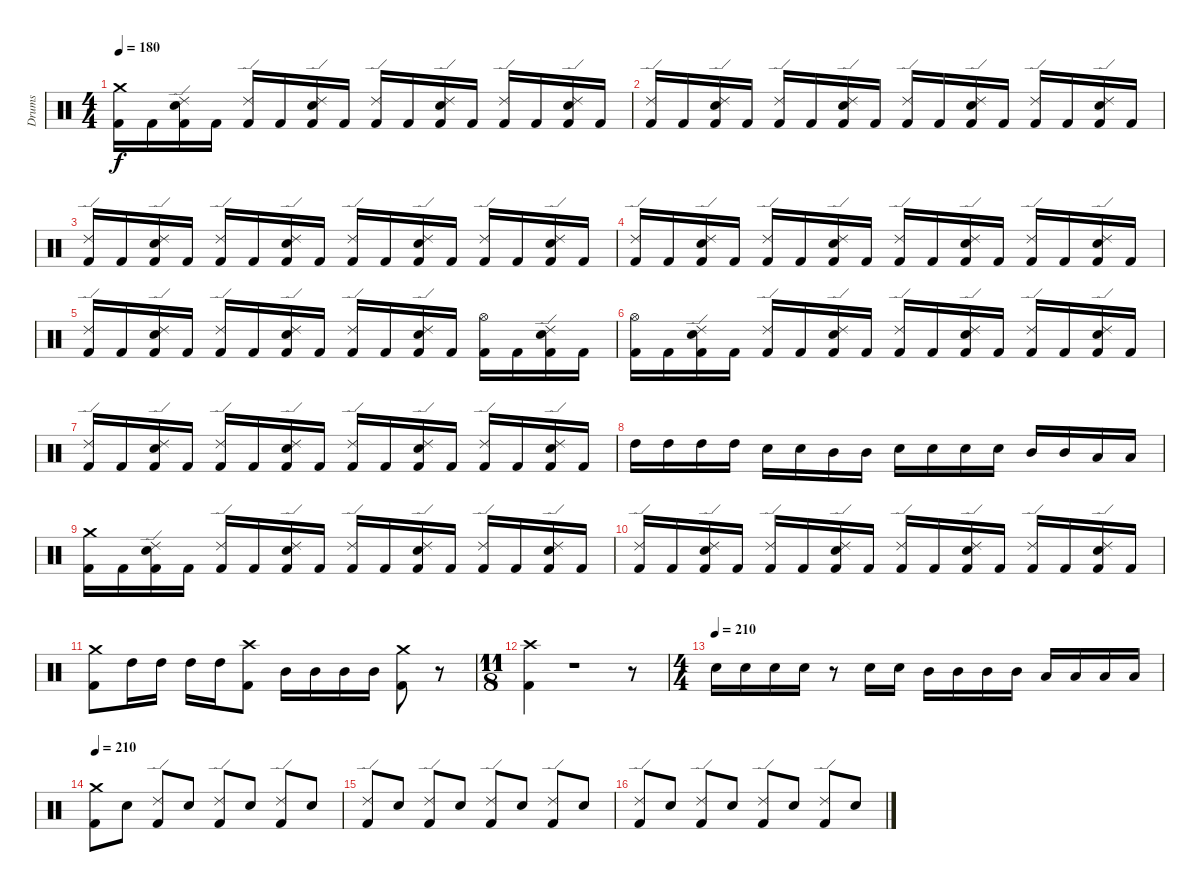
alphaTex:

\track ("Drums" "Drums") {instrument percussion}
\staff {score}
\articulation defaults
\ts (4 4)
\tempo 180
\clef neutral
\ks c
("Crash medium (hit)" "Kick (hit) 2").16{dy f} "Kick (hit) 2".16 ("Ride (edge) 2" "Electric Snare (hit)" "Kick (hit) 2").16 "Kick (hit) 2".16 ("Ride (edge) 2" "Kick (hit) 2").16 "Kick (hit) 2".16 ("Ride (edge) 2" "Electric Snare (hit)" "Kick (hit) 2").16 "Kick (hit) 2".16 ("Ride (edge) 2" "Kick (hit) 2").16 "Kick (hit) 2".16 ("Ride (edge) 2" "Electric Snare (hit)" "Kick (hit) 2").16 "Kick (hit) 2".16 ("Ride (edge) 2" "Kick (hit) 2").16 "Kick (hit) 2".16 ("Ride (edge) 2" "Electric Snare (hit)" "Kick (hit) 2").16 "Kick (hit) 2".16 |
("Ride (edge) 2" "Kick (hit) 2").16 "Kick (hit) 2".16 ("Ride (edge) 2" "Electric Snare (hit)" "Kick (hit) 2").16 "Kick (hit) 2".16 ("Ride (edge) 2" "Kick (hit) 2").16 "Kick (hit) 2".16 ("Ride (edge) 2" "Electric Snare (hit)" "Kick (hit) 2").16 "Kick (hit) 2".16 ("Ride (edge) 2" "Kick (hit) 2").16 "Kick (hit) 2".16 ("Ride (edge) 2" "Electric Snare (hit)" "Kick (hit) 2").16 "Kick (hit) 2".16 ("Ride (edge) 2" "Kick (hit) 2").16 "Kick (hit) 2".16 ("Ride (edge) 2" "Electric Snare (hit)" "Kick (hit) 2").16 "Kick (hit) 2".16 |
("Ride (edge) 2" "Kick (hit) 2").16 "Kick (hit) 2".16 ("Ride (edge) 2" "Electric Snare (hit)" "Kick (hit) 2").16 "Kick (hit) 2".16 ("Ride (edge) 2" "Kick (hit) 2").16 "Kick (hit) 2".16 ("Ride (edge) 2" "Electric Snare (hit)" "Kick (hit) 2").16 "Kick (hit) 2".16 ("Ride (edge) 2" "Kick (hit) 2").16 "Kick (hit) 2".16 ("Ride (edge) 2" "Electric Snare (hit)" "Kick (hit) 2").16 "Kick (hit) 2".16 ("Ride (edge) 2" "Kick (hit) 2").16 "Kick (hit) 2".16 ("Ride (edge) 2" "Electric Snare (hit)" "Kick (hit) 2").16 "Kick (hit) 2".16 |
("Ride (edge) 2" "Kick (hit) 2").16 "Kick (hit) 2".16 ("Ride (edge) 2" "Electric Snare (hit)" "Kick (hit) 2").16 "Kick (hit) 2".16 ("Ride (edge) 2" "Kick (hit) 2").16 "Kick (hit) 2".16 ("Ride (edge) 2" "Electric Snare (hit)" "Kick (hit) 2").16 "Kick (hit) 2".16 ("Ride (edge) 2" "Kick (hit) 2").16 "Kick (hit) 2".16 ("Ride (edge) 2" "Electric Snare (hit)" "Kick (hit) 2").16 "Kick (hit) 2".16 ("Ride (edge) 2" "Kick (hit) 2").16 "Kick (hit) 2".16 ("Ride (edge) 2" "Electric Snare (hit)" "Kick (hit) 2").16 "Kick (hit) 2".16 |
("Ride (edge) 2" "Kick (hit) 2").16 "Kick (hit) 2".16 ("Ride (edge) 2" "Electric Snare (hit)" "Kick (hit) 2").16 "Kick (hit) 2".16 ("Ride (edge) 2" "Kick (hit) 2").16 "Kick (hit) 2".16 ("Ride (edge) 2" "Electric Snare (hit)" "Kick (hit) 2").16 "Kick (hit) 2".16 ("Ride (edge) 2" "Kick (hit) 2").16 "Kick (hit) 2".16 ("Ride (edge) 2" "Electric Snare (hit)" "Kick (hit) 2").16 "Kick (hit) 2".16 ("Hi-Hat (open)" "Kick (hit) 2").16 "Kick (hit) 2".16 ("Ride (edge) 2" "Electric Snare (hit)" "Kick (hit) 2").16 "Kick (hit) 2".16 |
("Hi-Hat (open)" "Kick (hit) 2").16 "Kick (hit) 2".16 ("Ride (edge) 2" "Electric Snare (hit)" "Kick (hit) 2").16 "Kick (hit) 2".16 ("Ride (edge) 2" "Kick (hit) 2").16 "Kick (hit) 2".16 ("Ride (edge) 2" "Electric Snare (hit)" "Kick (hit) 2").16 "Kick (hit) 2".16 ("Ride (edge) 2" "Kick (hit) 2").16 "Kick (hit) 2".16 ("Ride (edge) 2" "Electric Snare (hit)" "Kick (hit) 2").16 "Kick (hit) 2".16 ("Ride (edge) 2" "Kick (hit) 2").16 "Kick (hit) 2".16 ("Ride (edge) 2" "Electric Snare (hit)" "Kick (hit) 2").16 "Kick (hit) 2".16 |
("Ride (edge) 2" "Kick (hit) 2").16 "Kick (hit) 2".16 ("Ride (edge) 2" "Electric Snare (hit)" "Kick (hit) 2").16 "Kick (hit) 2".16 ("Ride (edge) 2" "Kick (hit) 2").16 "Kick (hit) 2".16 ("Ride (edge) 2" "Electric Snare (hit)" "Kick (hit) 2").16 "Kick (hit) 2".16 ("Ride (edge) 2" "Kick (hit) 2").16 "Kick (hit) 2".16 ("Ride (edge) 2" "Electric Snare (hit)" "Kick (hit) 2").16 "Kick (hit) 2".16 ("Ride (edge) 2" "Kick (hit) 2").16 "Kick (hit) 2".16 ("Ride (edge) 2" "Electric Snare (hit)" "Kick (hit) 2").16 "Kick (hit) 2".16 |
"High Tom (hit)".16 "High Tom (hit)".16 "High Tom (hit)".16 "High Tom (hit)".16 "Electric Snare (hit)".16 "Electric Snare (hit)".16 "Mid Tom (hit)".16 "Mid Tom (hit)".16 "Electric Snare (hit)".16 "Electric Snare (hit)".16 "Electric Snare (hit)".16 "Electric Snare (hit)".16 "Mid Tom (hit)".16 "Mid Tom (hit)".16 "Low Tom (hit)".16 "Low Tom (hit)".16 |
("Crash medium (hit)" "Kick (hit) 2").16 "Kick (hit) 2".16 ("Ride (edge) 2" "Electric Snare (hit)" "Kick (hit) 2").16 "Kick (hit) 2".16 ("Ride (edge) 2" "Kick (hit) 2").16 "Kick (hit) 2".16 ("Ride (edge) 2" "Electric Snare (hit)" "Kick (hit) 2").16 "Kick (hit) 2".16 ("Ride (edge) 2" "Kick (hit) 2").16 "Kick (hit) 2".16 ("Ride (edge) 2" "Electric Snare (hit)" "Kick (hit) 2").16 "Kick (hit) 2".16 ("Ride (edge) 2" "Kick (hit) 2").16 "Kick (hit) 2".16 ("Ride (edge) 2" "Electric Snare (hit)" "Kick (hit) 2").16 "Kick (hit) 2".16 |
("Ride (edge) 2" "Kick (hit) 2").16 "Kick (hit) 2".16 ("Ride (edge) 2" "Electric Snare (hit)" "Kick (hit) 2").16 "Kick (hit) 2".16 ("Ride (edge) 2" "Kick (hit) 2").16 "Kick (hit) 2".16 ("Ride (edge) 2" "Electric Snare (hit)" "Kick (hit) 2").16 "Kick (hit) 2".16 ("Ride (edge) 2" "Kick (hit) 2").16 "Kick (hit) 2".16 ("Ride (edge) 2" "Electric Snare (hit)" "Kick (hit) 2").16 "Kick (hit) 2".16 ("Ride (edge) 2" "Kick (hit) 2").16 "Kick (hit) 2".16 ("Ride (edge) 2" "Electric Snare (hit)" "Kick (hit) 2").16 "Kick (hit) 2".16 |
("Crash medium (hit)" "Kick (hit) 2").8 "High Tom (hit)".16 "High Tom (hit)".16 "High Tom (hit)".16 "High Tom (hit)".16 ("Crash high (hit)" "Kick (hit) 2").8 "Mid Tom (hit)".16 "Mid Tom (hit)".16 "Mid Tom (hit)".16 "Mid Tom (hit)".16 ("Crash medium (hit)" "Kick (hit) 2").8 r.8 |
\ts (11 8)
("Crash high (hit)" "Kick (hit) 2").4 r.1 r.8 |
\ts (4 4)
\tempo (210)
"Electric Snare (hit)".16 "Electric Snare (hit)".16 "Electric Snare (hit)".16 "Electric Snare (hit)".16 r.8 "Electric Snare (hit)".16 "Electric Snare (hit)".16 "Mid Tom (hit)".16 "Mid Tom (hit)".16 "Mid Tom (hit)".16 "Mid Tom (hit)".16 "Low Tom (hit)".16 "Low Tom (hit)".16 "Low Tom (hit)".16 "Low Tom (hit)".16 |
\tempo 210
("Crash medium (hit)" "Kick (hit) 2").8 "Electric Snare (hit)".8 ("Ride (edge) 2" "Kick (hit) 2").8 "Electric Snare (hit)".8 ("Ride (edge) 2" "Kick (hit) 2").8 "Electric Snare (hit)".8 ("Ride (edge) 2" "Kick (hit) 2").8 "Electric Snare (hit)".8 |
("Ride (edge) 2" "Kick (hit) 2").8 "Electric Snare (hit)".8 ("Ride (edge) 2" "Kick (hit) 2").8 "Electric Snare (hit)".8 ("Ride (edge) 2" "Kick (hit) 2").8 "Electric Snare (hit)".8 ("Ride (edge) 2" "Kick (hit) 2").8 "Electric Snare (hit)".8 |
("Ride (edge) 2" "Kick (hit) 2").8 "Electric Snare (hit)".8 ("Ride (edge) 2" "Kick (hit) 2").8 "Electric Snare (hit)".8 ("Ride (edge) 2" "Kick (hit) 2").8 "Electric Snare (hit)".8 ("Ride (edge) 2" "Kick (hit) 2").8 "Electric Snare (hit)".8
